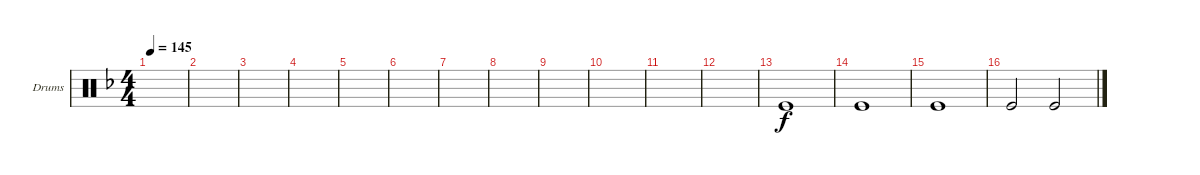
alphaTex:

\defaultSystemsLayout 4
\bracketExtendMode groupsimilarinstruments
\firstSystemTrackNameOrientation horizontal
\otherSystemsTrackNameOrientation horizontal
\track ("Drumkit" "Drums") {instrument percussion}
\staff {score}
\articulation defaults
\ts (4 4)
\tempo 145
\clef neutral
\scale
0.333333
\ks dminor
|
\scale
0.333333 |
\scale
0.333333 |
\scale
0.333333 |
\scale
0.333333 |
\scale
0.333333 |
\scale
0.333333 |
\scale
0.333333 |
\scale
0.333333 |
\scale
0.333333 |
\scale
0.333333 |
\scale
0.333333 |
\scale
0.333333 "Kick (hit)".1 |
\scale
0.333333 "Kick (hit)".1 |
\scale
0.333333 "Kick (hit)".1 |
\scale
0.333333 "Kick (hit)".2 "Kick (hit)".2
